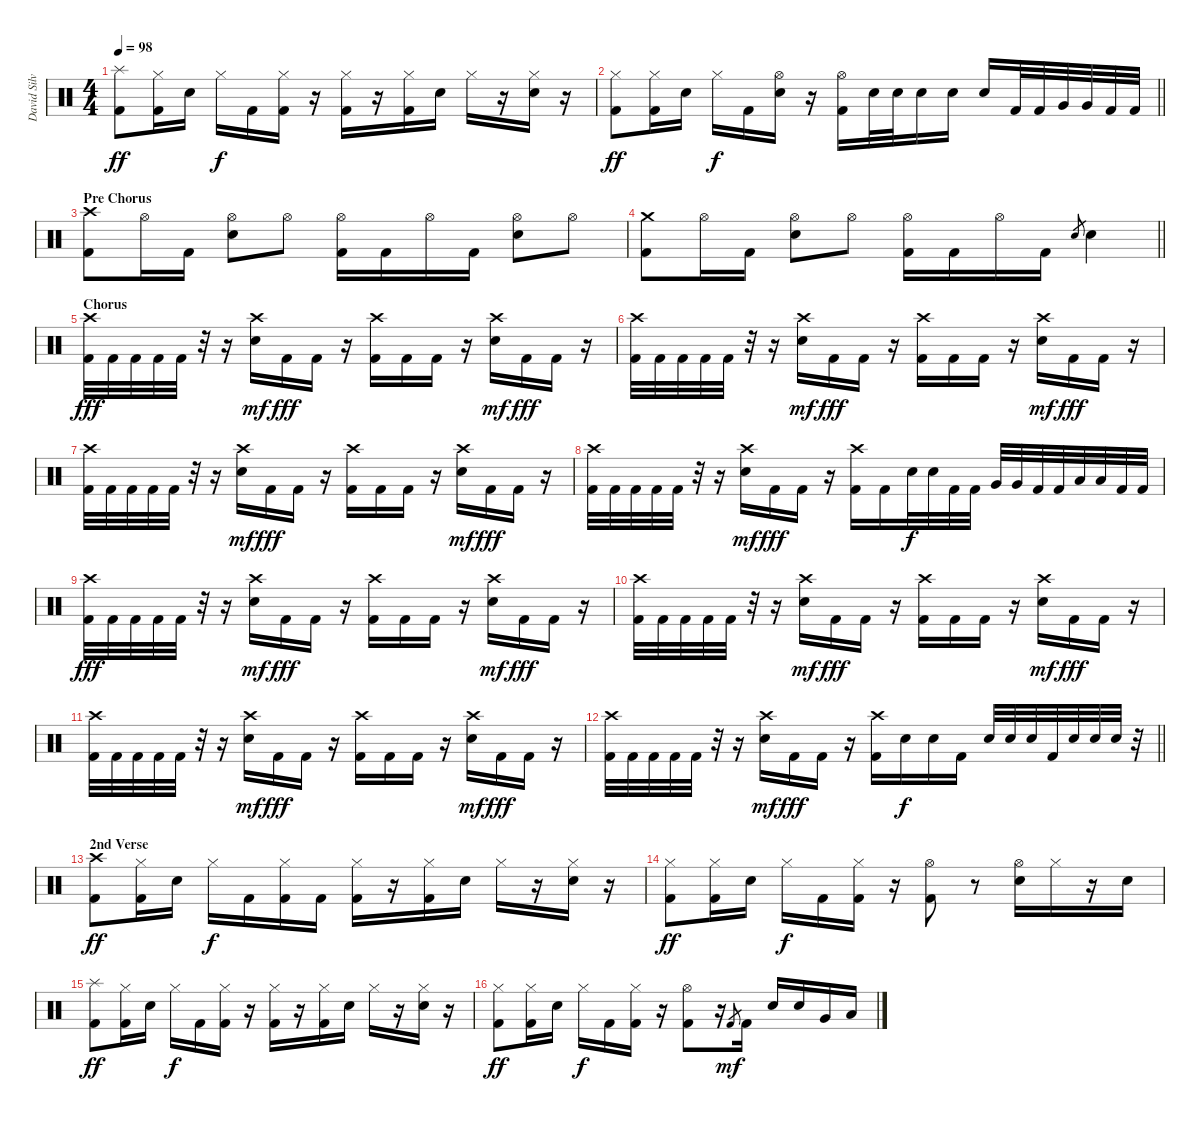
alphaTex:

\track ("David Silveria" "David Silv") {instrument percussion}
\staff {score}
\articulation defaults
\ts (4 4)
\tempo 98
\clef neutral
\ks c
("Splash (hit)" "Kick (hit) 2").8{dy ff} ("Hi-Hat (closed)" "Kick (hit) 2").16 "Snare (hit) 2".16 "Hi-Hat (closed)".16{dy f} "Kick (hit) 2".16 ("Hi-Hat (closed)" "Kick (hit) 2").16 r.16 ("Hi-Hat (closed)" "Kick (hit) 2").16 r.16 ("Hi-Hat (closed)" "Kick (hit) 2").16 "Snare (hit) 2".16 "Hi-Hat (closed)".16 r.16 ("Hi-Hat (closed)" "Snare (hit) 2").16 r.16 |
\barLineRight lightlight
("Hi-Hat (closed)" "Kick (hit) 2").8{dy ff} ("Hi-Hat (closed)" "Kick (hit) 2").16 "Snare (hit) 2".16 "Hi-Hat (closed)".16{dy f} "Kick (hit) 2".16 ("Hi-Hat (open)" "Snare (hit) 2").16 r.16 ("Hi-Hat (open)" "Kick (hit) 2").16 "Snare (hit) 2".32 "Snare (hit) 2".32 "Snare (hit) 2".16 "Snare (hit) 2".16 "Snare (hit) 2".16 "Kick (hit) 2".32 "Kick (hit) 2".32 "Very Low Tom (hit)".32 "Very Low Tom (hit)".32 "Kick (hit) 2".32 "Kick (hit) 2".32 |
\section ("" "Pre Chorus")
("Crash high (hit)" "Kick (hit) 2").8 "Hi-Hat (open)".16 "Kick (hit) 2".16 ("Hi-Hat (open)" "Snare (hit) 2").8 "Hi-Hat (open)".8 ("Hi-Hat (open)" "Kick (hit) 2").16 "Kick (hit) 2".16 "Hi-Hat (open)".16 "Kick (hit) 2".16 ("Hi-Hat (open)" "Snare (hit) 2").8 "Hi-Hat (open)".8 |
\barLineRight lightlight
("Crash medium (hit)" "Kick (hit) 2").8 "Hi-Hat (open)".16 "Kick (hit) 2".16 ("Hi-Hat (open)" "Snare (hit) 2").8 "Hi-Hat (open)".8 ("Hi-Hat (open)" "Kick (hit) 2").16 "Kick (hit) 2".16 "Hi-Hat (open)".16 "Kick (hit) 2".16 "Snare (hit) 2".8{gr} "Snare (hit) 2".4 |
\section ("" "Chorus")
("Crash high (hit)" "Kick (hit) 2").32{dy fff} "Kick (hit) 2".32 "Kick (hit) 2".32 "Kick (hit) 2".32 "Kick (hit) 2".32 r.32 r.16 ("Crash high (hit)" "Snare (hit) 2").16{dy mf} "Kick (hit) 2".16{dy fff} "Kick (hit) 2".16 r.16 ("Crash high (hit)" "Kick (hit) 2").16 "Kick (hit) 2".16 "Kick (hit) 2".16 r.16 ("Crash high (hit)" "Snare (hit) 2").16{dy mf} "Kick (hit) 2".16{dy fff} "Kick (hit) 2".16 r.16 |
("Crash high (hit)" "Kick (hit) 2").32 "Kick (hit) 2".32 "Kick (hit) 2".32 "Kick (hit) 2".32 "Kick (hit) 2".32 r.32 r.16 ("Crash high (hit)" "Snare (hit) 2").16{dy mf} "Kick (hit) 2".16{dy fff} "Kick (hit) 2".16 r.16 ("Crash high (hit)" "Kick (hit) 2").16 "Kick (hit) 2".16 "Kick (hit) 2".16 r.16 ("Crash high (hit)" "Snare (hit) 2").16{dy mf} "Kick (hit) 2".16{dy fff} "Kick (hit) 2".16 r.16 |
("Crash high (hit)" "Kick (hit) 2").32 "Kick (hit) 2".32 "Kick (hit) 2".32 "Kick (hit) 2".32 "Kick (hit) 2".32 r.32 r.16 ("Crash high (hit)" "Snare (hit) 2").16{dy mf} "Kick (hit) 2".16{dy fff} "Kick (hit) 2".16 r.16 ("Crash high (hit)" "Kick (hit) 2").16 "Kick (hit) 2".16 "Kick (hit) 2".16 r.16 ("Crash high (hit)" "Snare (hit) 2").16{dy mf} "Kick (hit) 2".16{dy fff} "Kick (hit) 2".16 r.16 |
("Crash high (hit)" "Kick (hit) 2").32 "Kick (hit) 2".32 "Kick (hit) 2".32 "Kick (hit) 2".32 "Kick (hit) 2".32 r.32 r.16 ("Crash high (hit)" "Snare (hit) 2").16{dy mf} "Kick (hit) 2".16{dy fff} "Kick (hit) 2".16 r.16 ("Crash high (hit)" "Kick (hit) 2").16 "Kick (hit) 2".16 "Snare (hit) 2".32{dy f} "Snare (hit) 2".32 "Kick (hit) 2".32 "Kick (hit) 2".32 "Very Low Tom (hit)".32 "Very Low Tom (hit)".32 "Kick (hit) 2".32 "Kick (hit) 2".32 "Low Floor Tom (hit)".32 "Low Floor Tom (hit)".32 "Kick (hit) 2".32 "Kick (hit) 2".32 |
("Crash high (hit)" "Kick (hit) 2").32{dy fff} "Kick (hit) 2".32 "Kick (hit) 2".32 "Kick (hit) 2".32 "Kick (hit) 2".32 r.32 r.16 ("Crash high (hit)" "Snare (hit) 2").16{dy mf} "Kick (hit) 2".16{dy fff} "Kick (hit) 2".16 r.16 ("Crash high (hit)" "Kick (hit) 2").16 "Kick (hit) 2".16 "Kick (hit) 2".16 r.16 ("Crash high (hit)" "Snare (hit) 2").16{dy mf} "Kick (hit) 2".16{dy fff} "Kick (hit) 2".16 r.16 |
("Crash high (hit)" "Kick (hit) 2").32 "Kick (hit) 2".32 "Kick (hit) 2".32 "Kick (hit) 2".32 "Kick (hit) 2".32 r.32 r.16 ("Crash high (hit)" "Snare (hit) 2").16{dy mf} "Kick (hit) 2".16{dy fff} "Kick (hit) 2".16 r.16 ("Crash high (hit)" "Kick (hit) 2").16 "Kick (hit) 2".16 "Kick (hit) 2".16 r.16 ("Crash high (hit)" "Snare (hit) 2").16{dy mf} "Kick (hit) 2".16{dy fff} "Kick (hit) 2".16 r.16 |
("Crash high (hit)" "Kick (hit) 2").32 "Kick (hit) 2".32 "Kick (hit) 2".32 "Kick (hit) 2".32 "Kick (hit) 2".32 r.32 r.16 ("Crash high (hit)" "Snare (hit) 2").16{dy mf} "Kick (hit) 2".16{dy fff} "Kick (hit) 2".16 r.16 ("Crash high (hit)" "Kick (hit) 2").16 "Kick (hit) 2".16 "Kick (hit) 2".16 r.16 ("Crash high (hit)" "Snare (hit) 2").16{dy mf} "Kick (hit) 2".16{dy fff} "Kick (hit) 2".16 r.16 |
\barLineRight lightlight
("Crash high (hit)" "Kick (hit) 2").32 "Kick (hit) 2".32 "Kick (hit) 2".32 "Kick (hit) 2".32 "Kick (hit) 2".32 r.32 r.16 ("Crash high (hit)" "Snare (hit) 2").16{dy mf} "Kick (hit) 2".16{dy fff} "Kick (hit) 2".16 r.16 ("Crash high (hit)" "Kick (hit) 2").16 "Snare (hit) 2".16{dy f} "Snare (hit) 2".16 "Kick (hit) 2".16 "Snare (hit) 2".32 "Snare (hit) 2".32 "Snare (hit) 2".32 "Kick (hit) 2".32 "Snare (hit) 2".32 "Snare (hit) 2".32 "Snare (hit) 2".32 r.32 |
\section ("" "2nd Verse")
("Crash high (hit)" "Kick (hit) 2").8{dy ff} ("Hi-Hat (closed)" "Kick (hit) 2").16 "Snare (hit) 2".16 "Hi-Hat (closed)".16{dy f} "Kick (hit) 2".16 ("Hi-Hat (closed)" "Kick (hit) 2").16 "Kick (hit) 2".16 ("Hi-Hat (closed)" "Kick (hit) 2").16 r.16 ("Hi-Hat (closed)" "Kick (hit) 2").16 "Snare (hit) 2".16 "Hi-Hat (closed)".16 r.16 ("Hi-Hat (closed)" "Snare (hit) 2").16 r.16 |
("Hi-Hat (closed)" "Kick (hit) 2").8{dy ff} ("Hi-Hat (closed)" "Kick (hit) 2").16 "Snare (hit) 2".16 "Hi-Hat (closed)".16{dy f} "Kick (hit) 2".16 ("Hi-Hat (closed)" "Kick (hit) 2").16 r.16 ("Hi-Hat (open)" "Kick (hit) 2").8 r.8 ("Hi-Hat (open)" "Snare (hit) 2").16 "Hi-Hat (closed)".16 r.16 "Snare (hit) 2".16 |
("Splash (hit)" "Kick (hit) 2").8{dy ff} ("Hi-Hat (closed)" "Kick (hit) 2").16 "Snare (hit) 2".16 "Hi-Hat (closed)".16{dy f} "Kick (hit) 2".16 ("Hi-Hat (closed)" "Kick (hit) 2").16 r.16 ("Hi-Hat (closed)" "Kick (hit) 2").16 r.16 ("Hi-Hat (closed)" "Kick (hit) 2").16 "Snare (hit) 2".16 "Hi-Hat (closed)".16 r.16 ("Hi-Hat (closed)" "Snare (hit) 2").16 r.16 |
("Hi-Hat (closed)" "Kick (hit) 2").8{dy ff} ("Hi-Hat (closed)" "Kick (hit) 2").16 "Snare (hit) 2".16 "Hi-Hat (closed)".16{dy f} "Kick (hit) 2".16 ("Hi-Hat (closed)" "Kick (hit) 2").16 r.16 ("Hi-Hat (open)" "Kick (hit) 2").8 r.16 "Kick (hit) 2".8{gr dy mf} "Kick (hit) 2".16 "Snare (hit) 2".16 "Snare (hit) 2".16 "Very Low Tom (hit)".16 "Low Floor Tom (hit)".16
